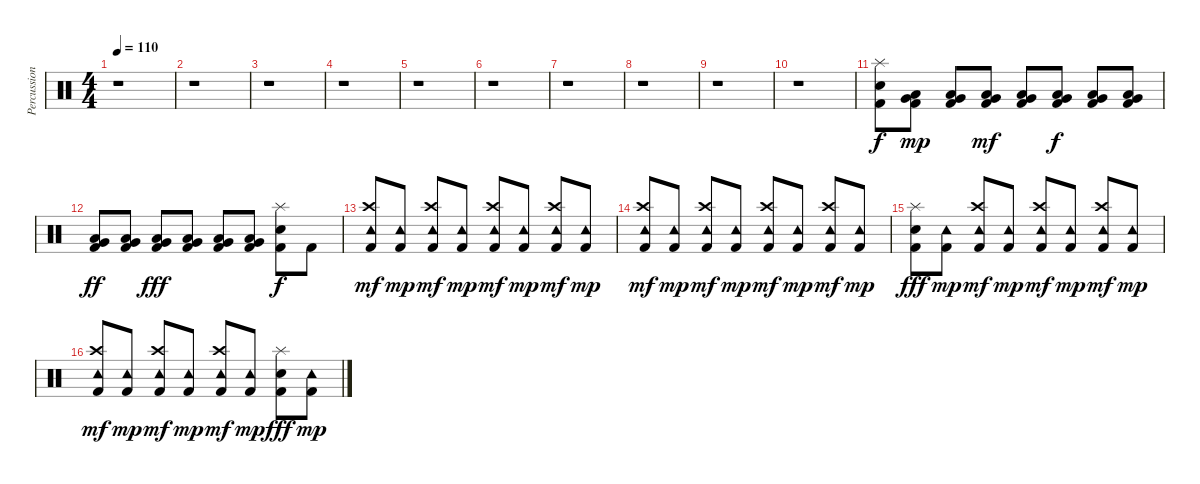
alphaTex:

\track ("Percussion" "Percussion") {instrument percussion}
\staff {score}
\articulation defaults
\ts (4 4)
\tempo 110
\clef neutral
\ks c
r.1{dy f} |
r.1 |
r.1 |
r.1 |
r.1 |
r.1 |
r.1 |
r.1 |
r.1 |
r.1 |
("Splash (hit)" "Snare (hit) 2" "Kick (hit) 2").8 ("Low Tom (hit)" "Very Low Tom (hit)" "Kick (hit) 2").8{dy mp} ("Low Tom (hit)" "Very Low Tom (hit)" "Kick (hit) 2").8 ("Low Tom (hit)" "Very Low Tom (hit)" "Kick (hit) 2").8{dy mf} ("Low Tom (hit)" "Very Low Tom (hit)" "Kick (hit) 2").8 ("Low Tom (hit)" "Very Low Tom (hit)" "Kick (hit) 2").8{dy f} ("Low Tom (hit)" "Very Low Tom (hit)" "Kick (hit) 2").8 ("Low Tom (hit)" "Very Low Tom (hit)" "Kick (hit) 2").8 |
("Low Tom (hit)" "Very Low Tom (hit)" "Kick (hit) 2").8{dy ff} ("Low Tom (hit)" "Very Low Tom (hit)" "Kick (hit) 2").8 ("Low Tom (hit)" "Very Low Tom (hit)" "Kick (hit) 2").8{dy fff} ("Low Tom (hit)" "Very Low Tom (hit)" "Kick (hit) 2").8 ("Low Tom (hit)" "Very Low Tom (hit)" "Kick (hit) 2").8 ("Low Tom (hit)" "Very Low Tom (hit)" "Kick (hit) 2").8 ("Splash (hit)" "Snare (hit) 2" "Kick (hit) 2").8{dy f} "Kick (hit) 2".8 |
("Crash high (hit)" "Tambourine (hit)" "Kick (hit) 2").8{dy mf} ("Tambourine (hit)" "Kick (hit) 2").8{dy mp} ("Crash high (hit)" "Tambourine (hit)" "Kick (hit) 2").8{dy mf} ("Tambourine (hit)" "Kick (hit) 2").8{dy mp} ("Crash high (hit)" "Tambourine (hit)" "Kick (hit) 2").8{dy mf} ("Tambourine (hit)" "Kick (hit) 2").8{dy mp} ("Crash high (hit)" "Tambourine (hit)" "Kick (hit) 2").8{dy mf} ("Tambourine (hit)" "Kick (hit) 2").8{dy mp} |
("Crash high (hit)" "Tambourine (hit)" "Kick (hit) 2").8{dy mf} ("Tambourine (hit)" "Kick (hit) 2").8{dy mp} ("Crash high (hit)" "Tambourine (hit)" "Kick (hit) 2").8{dy mf} ("Tambourine (hit)" "Kick (hit) 2").8{dy mp} ("Crash high (hit)" "Tambourine (hit)" "Kick (hit) 2").8{dy mf} ("Tambourine (hit)" "Kick (hit) 2").8{dy mp} ("Crash high (hit)" "Tambourine (hit)" "Kick (hit) 2").8{dy mf} ("Tambourine (hit)" "Kick (hit) 2").8{dy mp} |
("Splash (hit)" "Snare (hit) 2" "Kick (hit) 2").8{dy fff} ("Tambourine (hit)" "Kick (hit) 2").8{dy mp} ("Crash high (hit)" "Tambourine (hit)" "Kick (hit) 2").8{dy mf} ("Tambourine (hit)" "Kick (hit) 2").8{dy mp} ("Crash high (hit)" "Tambourine (hit)" "Kick (hit) 2").8{dy mf} ("Tambourine (hit)" "Kick (hit) 2").8{dy mp} ("Crash high (hit)" "Tambourine (hit)" "Kick (hit) 2").8{dy mf} ("Tambourine (hit)" "Kick (hit) 2").8{dy mp} |
("Crash high (hit)" "Tambourine (hit)" "Kick (hit) 2").8{dy mf} ("Tambourine (hit)" "Kick (hit) 2").8{dy mp} ("Crash high (hit)" "Tambourine (hit)" "Kick (hit) 2").8{dy mf} ("Tambourine (hit)" "Kick (hit) 2").8{dy mp} ("Crash high (hit)" "Tambourine (hit)" "Kick (hit) 2").8{dy mf} ("Tambourine (hit)" "Kick (hit) 2").8{dy mp} ("Splash (hit)" "Snare (hit) 2" "Kick (hit) 2").8{dy fff} ("Tambourine (hit)" "Kick (hit) 2").8{dy mp}
